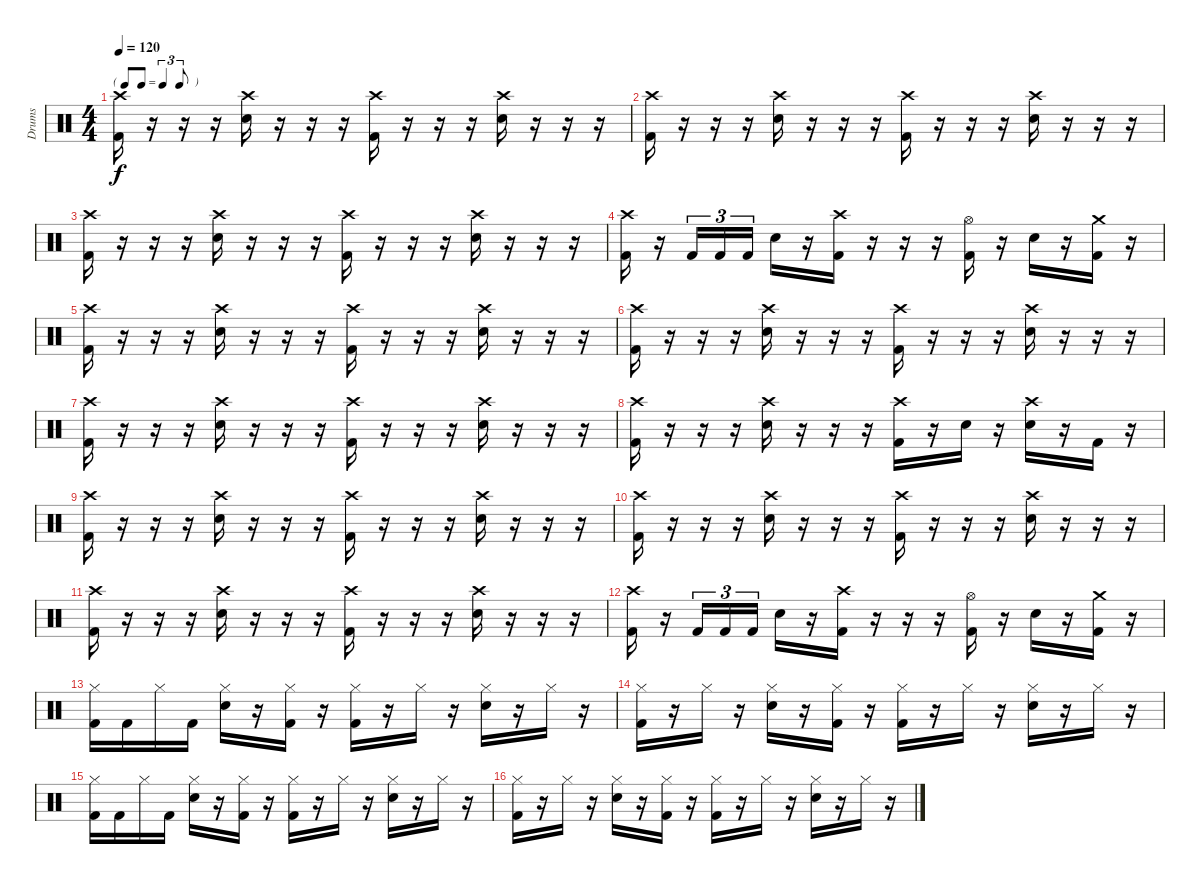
\track ("Drums" "Drums") {instrument percussion}
\staff {score}
\articulation defaults
\ts (4 4)
\tf triplet8th
\tempo 120
\clef neutral
\ks c
("Crash high (hit)" "Kick (hit) 2").16{dy f} r.16 r.16 r.16 ("Crash high (hit)" "Electric Snare (hit)").16 r.16 r.16 r.16 ("Crash high (hit)" "Kick (hit) 2").16 r.16 r.16 r.16 ("Crash high (hit)" "Electric Snare (hit)").16 r.16 r.16 r.16 |
("Crash high (hit)" "Kick (hit) 2").16 r.16 r.16 r.16 ("Crash high (hit)" "Electric Snare (hit)").16 r.16 r.16 r.16 ("Crash high (hit)" "Kick (hit) 2").16 r.16 r.16 r.16 ("Crash high (hit)" "Electric Snare (hit)").16 r.16 r.16 r.16 |
("Crash high (hit)" "Kick (hit) 2").16 r.16 r.16 r.16 ("Crash high (hit)" "Electric Snare (hit)").16 r.16 r.16 r.16 ("Crash high (hit)" "Kick (hit) 2").16 r.16 r.16 r.16 ("Crash high (hit)" "Electric Snare (hit)").16 r.16 r.16 r.16 |
("Crash high (hit)" "Kick (hit) 2").16 r.16 "Kick (hit) 2".16{tu (3 2)} "Kick (hit) 2".16{tu (3 2)} "Kick (hit) 2".16{tu (3 2)} "Electric Snare (hit)".16 r.16 ("Crash high (hit)" "Kick (hit) 2").16 r.16 r.16 r.16 ("Hi-Hat (open)" "Kick (hit) 2").16 r.16 "Electric Snare (hit)".16 r.16 ("Crash medium (hit)" "Kick (hit) 2").16 r.16 |
("Crash high (hit)" "Kick (hit) 2").16 r.16 r.16 r.16 ("Crash high (hit)" "Electric Snare (hit)").16 r.16 r.16 r.16 ("Crash high (hit)" "Kick (hit) 2").16 r.16 r.16 r.16 ("Crash high (hit)" "Electric Snare (hit)").16 r.16 r.16 r.16 |
("Crash high (hit)" "Kick (hit) 2").16 r.16 r.16 r.16 ("Crash high (hit)" "Electric Snare (hit)").16 r.16 r.16 r.16 ("Crash high (hit)" "Kick (hit) 2").16 r.16 r.16 r.16 ("Crash high (hit)" "Electric Snare (hit)").16 r.16 r.16 r.16 |
("Crash high (hit)" "Kick (hit) 2").16 r.16 r.16 r.16 ("Crash high (hit)" "Electric Snare (hit)").16 r.16 r.16 r.16 ("Crash high (hit)" "Kick (hit) 2").16 r.16 r.16 r.16 ("Crash high (hit)" "Electric Snare (hit)").16 r.16 r.16 r.16 |
("Crash high (hit)" "Kick (hit) 2").16 r.16 r.16 r.16 ("Crash high (hit)" "Electric Snare (hit)").16 r.16 r.16 r.16 ("Crash high (hit)" "Kick (hit) 2").16 r.16 "Electric Snare (hit)".16 r.16 ("Crash high (hit)" "Electric Snare (hit)").16 r.16 "Kick (hit) 2".16 r.16 |
("Crash high (hit)" "Kick (hit) 2").16 r.16 r.16 r.16 ("Crash high (hit)" "Electric Snare (hit)").16 r.16 r.16 r.16 ("Crash high (hit)" "Kick (hit) 2").16 r.16 r.16 r.16 ("Crash high (hit)" "Electric Snare (hit)").16 r.16 r.16 r.16 |
("Crash high (hit)" "Kick (hit) 2").16 r.16 r.16 r.16 ("Crash high (hit)" "Electric Snare (hit)").16 r.16 r.16 r.16 ("Crash high (hit)" "Kick (hit) 2").16 r.16 r.16 r.16 ("Crash high (hit)" "Electric Snare (hit)").16 r.16 r.16 r.16 |
("Crash high (hit)" "Kick (hit) 2").16 r.16 r.16 r.16 ("Crash high (hit)" "Electric Snare (hit)").16 r.16 r.16 r.16 ("Crash high (hit)" "Kick (hit) 2").16 r.16 r.16 r.16 ("Crash high (hit)" "Electric Snare (hit)").16 r.16 r.16 r.16 |
("Crash high (hit)" "Kick (hit) 2").16 r.16 "Kick (hit) 2".16{tu (3 2)} "Kick (hit) 2".16{tu (3 2)} "Kick (hit) 2".16{tu (3 2)} "Electric Snare (hit)".16 r.16 ("Crash high (hit)" "Kick (hit) 2").16 r.16 r.16 r.16 ("Hi-Hat (open)" "Kick (hit) 2").16 r.16 "Electric Snare (hit)".16 r.16 ("Crash medium (hit)" "Kick (hit) 2").16 r.16 |
("Hi-Hat (closed)" "Kick (hit) 2").16 "Kick (hit) 2".16 "Hi-Hat (closed)".16 "Kick (hit) 2".16 ("Hi-Hat (closed)" "Electric Snare (hit)").16 r.16 ("Hi-Hat (closed)" "Kick (hit) 2").16 r.16 ("Hi-Hat (closed)" "Kick (hit) 2").16 r.16 "Hi-Hat (closed)".16 r.16 ("Hi-Hat (closed)" "Electric Snare (hit)").16 r.16 "Hi-Hat (closed)".16 r.16 |
("Hi-Hat (closed)" "Kick (hit) 2").16 r.16 "Hi-Hat (closed)".16 r.16 ("Hi-Hat (closed)" "Electric Snare (hit)").16 r.16 ("Hi-Hat (closed)" "Kick (hit) 2").16 r.16 ("Hi-Hat (closed)" "Kick (hit) 2").16 r.16 "Hi-Hat (closed)".16 r.16 ("Hi-Hat (closed)" "Electric Snare (hit)").16 r.16 "Hi-Hat (closed)".16 r.16 |
("Hi-Hat (closed)" "Kick (hit) 2").16 "Kick (hit) 2".16 "Hi-Hat (closed)".16 "Kick (hit) 2".16 ("Hi-Hat (closed)" "Electric Snare (hit)").16 r.16 ("Hi-Hat (closed)" "Kick (hit) 2").16 r.16 ("Hi-Hat (closed)" "Kick (hit) 2").16 r.16 "Hi-Hat (closed)".16 r.16 ("Hi-Hat (closed)" "Electric Snare (hit)").16 r.16 "Hi-Hat (closed)".16 r.16 |
("Hi-Hat (closed)" "Kick (hit) 2").16 r.16 "Hi-Hat (closed)".16 r.16 ("Hi-Hat (closed)" "Electric Snare (hit)").16 r.16 ("Hi-Hat (closed)" "Kick (hit) 2").16 r.16 ("Hi-Hat (closed)" "Kick (hit) 2").16 r.16 "Hi-Hat (closed)".16 r.16 ("Hi-Hat (closed)" "Electric Snare (hit)").16 r.16 "Hi-Hat (closed)".16 r.16
